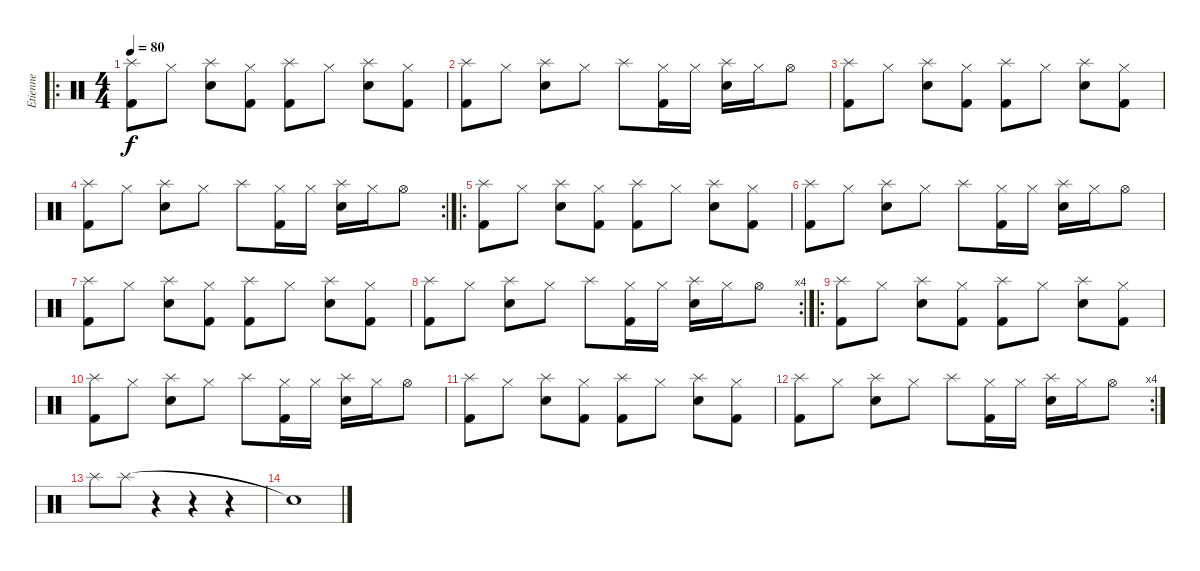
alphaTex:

\track ("Etienne" "Etienne") {instrument percussion}
\staff {score}
\articulation defaults
\ro
\ts (4 4)
\tempo 80
\clef neutral
\ks c
("Splash (hit)" "Kick (hit) 2").8{dy f} "Hi-Hat (closed)".8 ("Splash (hit)" "Snare (hit) 2").8 ("Hi-Hat (closed)" "Kick (hit) 2").8 ("Splash (hit)" "Kick (hit) 2").8 "Hi-Hat (closed)".8 ("Splash (hit)" "Snare (hit) 2").8 ("Hi-Hat (closed)" "Kick (hit) 2").8 |
("Splash (hit)" "Kick (hit) 2").8 "Hi-Hat (closed)".8 ("Splash (hit)" "Snare (hit) 2").8 "Hi-Hat (closed)".8 "Splash (hit)".8 ("Hi-Hat (closed)" "Kick (hit) 2").16 "Hi-Hat (closed)".16 ("Splash (hit)" "Snare (hit) 2").16 "Hi-Hat (closed)".16 "Hi-Hat (open)".8 |
("Splash (hit)" "Kick (hit) 2").8 "Hi-Hat (closed)".8 ("Splash (hit)" "Snare (hit) 2").8 ("Hi-Hat (closed)" "Kick (hit) 2").8 ("Splash (hit)" "Kick (hit) 2").8 "Hi-Hat (closed)".8 ("Splash (hit)" "Snare (hit) 2").8 ("Hi-Hat (closed)" "Kick (hit) 2").8 |
\rc 2
("Splash (hit)" "Kick (hit) 2").8 "Hi-Hat (closed)".8 ("Splash (hit)" "Snare (hit) 2").8 "Hi-Hat (closed)".8 "Splash (hit)".8 ("Hi-Hat (closed)" "Kick (hit) 2").16 "Hi-Hat (closed)".16 ("Splash (hit)" "Snare (hit) 2").16 "Hi-Hat (closed)".16 "Hi-Hat (open)".8 |
\ro
("Splash (hit)" "Kick (hit) 2").8 "Hi-Hat (closed)".8 ("Splash (hit)" "Snare (hit) 2").8 ("Hi-Hat (closed)" "Kick (hit) 2").8 ("Splash (hit)" "Kick (hit) 2").8 "Hi-Hat (closed)".8 ("Splash (hit)" "Snare (hit) 2").8 ("Hi-Hat (closed)" "Kick (hit) 2").8 |
("Splash (hit)" "Kick (hit) 2").8 "Hi-Hat (closed)".8 ("Splash (hit)" "Snare (hit) 2").8 "Hi-Hat (closed)".8 "Splash (hit)".8 ("Hi-Hat (closed)" "Kick (hit) 2").16 "Hi-Hat (closed)".16 ("Splash (hit)" "Snare (hit) 2").16 "Hi-Hat (closed)".16 "Hi-Hat (open)".8 |
("Splash (hit)" "Kick (hit) 2").8 "Hi-Hat (closed)".8 ("Splash (hit)" "Snare (hit) 2").8 ("Hi-Hat (closed)" "Kick (hit) 2").8 ("Splash (hit)" "Kick (hit) 2").8 "Hi-Hat (closed)".8 ("Splash (hit)" "Snare (hit) 2").8 ("Hi-Hat (closed)" "Kick (hit) 2").8 |
\rc 4
("Splash (hit)" "Kick (hit) 2").8 "Hi-Hat (closed)".8 ("Splash (hit)" "Snare (hit) 2").8 "Hi-Hat (closed)".8 "Splash (hit)".8 ("Hi-Hat (closed)" "Kick (hit) 2").16 "Hi-Hat (closed)".16 ("Splash (hit)" "Snare (hit) 2").16 "Hi-Hat (closed)".16 "Hi-Hat (open)".8 |
\ro
("Splash (hit)" "Kick (hit) 2").8 "Hi-Hat (closed)".8 ("Splash (hit)" "Snare (hit) 2").8 ("Hi-Hat (closed)" "Kick (hit) 2").8 ("Splash (hit)" "Kick (hit) 2").8 "Hi-Hat (closed)".8 ("Splash (hit)" "Snare (hit) 2").8 ("Hi-Hat (closed)" "Kick (hit) 2").8 |
("Splash (hit)" "Kick (hit) 2").8 "Hi-Hat (closed)".8 ("Splash (hit)" "Snare (hit) 2").8 "Hi-Hat (closed)".8 "Splash (hit)".8 ("Hi-Hat (closed)" "Kick (hit) 2").16 "Hi-Hat (closed)".16 ("Splash (hit)" "Snare (hit) 2").16 "Hi-Hat (closed)".16 "Hi-Hat (open)".8 |
("Splash (hit)" "Kick (hit) 2").8 "Hi-Hat (closed)".8 ("Splash (hit)" "Snare (hit) 2").8 ("Hi-Hat (closed)" "Kick (hit) 2").8 ("Splash (hit)" "Kick (hit) 2").8 "Hi-Hat (closed)".8 ("Splash (hit)" "Snare (hit) 2").8 ("Hi-Hat (closed)" "Kick (hit) 2").8 |
\rc 4
("Splash (hit)" "Kick (hit) 2").8 "Hi-Hat (closed)".8 ("Splash (hit)" "Snare (hit) 2").8 "Hi-Hat (closed)".8 "Splash (hit)".8 ("Hi-Hat (closed)" "Kick (hit) 2").16 "Hi-Hat (closed)".16 ("Splash (hit)" "Snare (hit) 2").16 "Hi-Hat (closed)".16 "Hi-Hat (open)".8 |
"Splash (hit)".8 "Splash (hit)".8 r.4 r.4 r.4 |
"Snare (hit)"{t}.1
